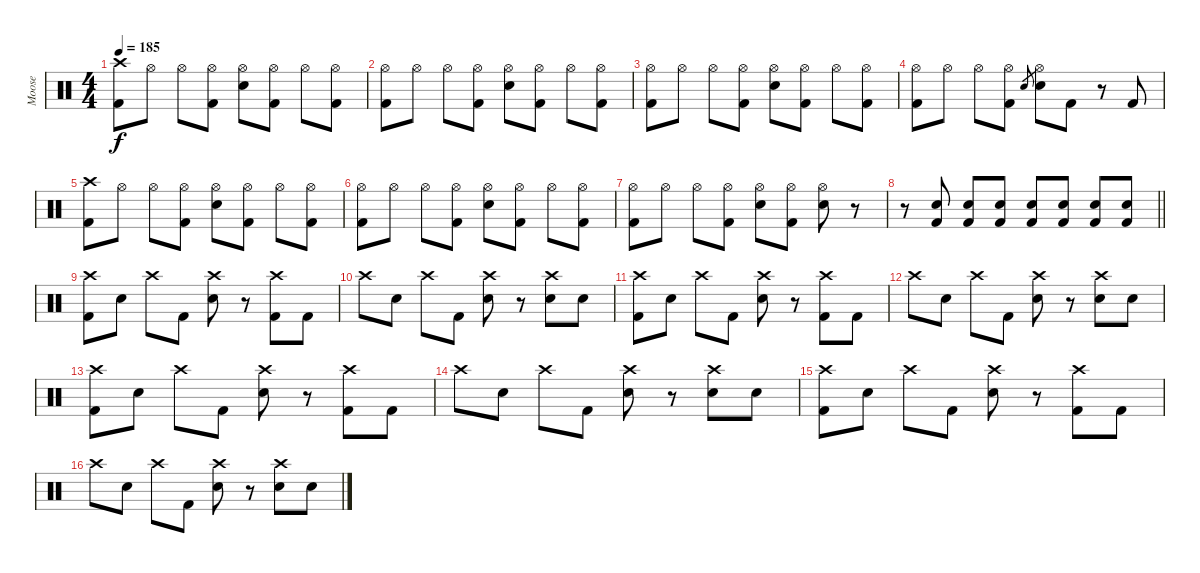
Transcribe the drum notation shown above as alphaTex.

\track ("Moose" "Moose") {instrument percussion}
\staff {score}
\articulation defaults
\ts (4 4)
\tempo 185
\clef neutral
\ks c
("Crash high (hit)" "Kick (hit) 2").8{dy f} "Hi-Hat (open)".8 "Hi-Hat (open)".8 ("Hi-Hat (open)" "Kick (hit) 2").8 ("Hi-Hat (open)" "Electric Snare (hit)").8 ("Hi-Hat (open)" "Kick (hit) 2").8 "Hi-Hat (open)".8 ("Hi-Hat (open)" "Kick (hit) 2").8 |
("Hi-Hat (open)" "Kick (hit) 2").8 "Hi-Hat (open)".8 "Hi-Hat (open)".8 ("Hi-Hat (open)" "Kick (hit) 2").8 ("Hi-Hat (open)" "Electric Snare (hit)").8 ("Hi-Hat (open)" "Kick (hit) 2").8 "Hi-Hat (open)".8 ("Hi-Hat (open)" "Kick (hit) 2").8 |
("Hi-Hat (open)" "Kick (hit) 2").8 "Hi-Hat (open)".8 "Hi-Hat (open)".8 ("Hi-Hat (open)" "Kick (hit) 2").8 ("Hi-Hat (open)" "Electric Snare (hit)").8 ("Hi-Hat (open)" "Kick (hit) 2").8 "Hi-Hat (open)".8 ("Hi-Hat (open)" "Kick (hit) 2").8 |
("Hi-Hat (open)" "Kick (hit) 2").8 "Hi-Hat (open)".8 "Hi-Hat (open)".8 ("Hi-Hat (open)" "Kick (hit) 2").8 "Electric Snare (hit)".8{gr} ("Hi-Hat (open)" "Electric Snare (hit)").8 "Kick (hit) 2".8 r.8 "Kick (hit) 2".8 |
("Crash high (hit)" "Kick (hit) 2").8 "Hi-Hat (open)".8 "Hi-Hat (open)".8 ("Hi-Hat (open)" "Kick (hit) 2").8 ("Hi-Hat (open)" "Electric Snare (hit)").8 ("Hi-Hat (open)" "Kick (hit) 2").8 "Hi-Hat (open)".8 ("Hi-Hat (open)" "Kick (hit) 2").8 |
("Hi-Hat (open)" "Kick (hit) 2").8 "Hi-Hat (open)".8 "Hi-Hat (open)".8 ("Hi-Hat (open)" "Kick (hit) 2").8 ("Hi-Hat (open)" "Electric Snare (hit)").8 ("Hi-Hat (open)" "Kick (hit) 2").8 "Hi-Hat (open)".8 ("Hi-Hat (open)" "Kick (hit) 2").8 |
("Hi-Hat (open)" "Kick (hit) 2").8 "Hi-Hat (open)".8 "Hi-Hat (open)".8 ("Hi-Hat (open)" "Kick (hit) 2").8 ("Hi-Hat (open)" "Electric Snare (hit)").8 ("Hi-Hat (open)" "Kick (hit) 2").8 ("Hi-Hat (open)" "Electric Snare (hit)").8 r.8 |
\barLineRight lightlight
r.8 ("Electric Snare (hit)" "Kick (hit) 2").8 ("Electric Snare (hit)" "Kick (hit) 2").8 ("Electric Snare (hit)" "Kick (hit) 2").8 ("Electric Snare (hit)" "Kick (hit) 2").8 ("Electric Snare (hit)" "Kick (hit) 2").8 ("Electric Snare (hit)" "Kick (hit) 2").8 ("Electric Snare (hit)" "Kick (hit) 2").8 |
("Crash high (hit)" "Kick (hit) 2").8 "Electric Snare (hit)".8 "Crash high (hit)".8 "Kick (hit) 2".8 ("Crash high (hit)" "Electric Snare (hit)").8 r.8 ("Crash high (hit)" "Kick (hit) 2").8 "Kick (hit) 2".8 |
"Crash high (hit)".8 "Electric Snare (hit)".8 "Crash high (hit)".8 "Kick (hit) 2".8 ("Crash high (hit)" "Electric Snare (hit)").8 r.8 ("Crash high (hit)" "Electric Snare (hit)").8 "Electric Snare (hit)".8 |
("Crash high (hit)" "Kick (hit) 2").8 "Electric Snare (hit)".8 "Crash high (hit)".8 "Kick (hit) 2".8 ("Crash high (hit)" "Electric Snare (hit)").8 r.8 ("Crash high (hit)" "Kick (hit) 2").8 "Kick (hit) 2".8 |
"Crash high (hit)".8 "Electric Snare (hit)".8 "Crash high (hit)".8 "Kick (hit) 2".8 ("Crash high (hit)" "Electric Snare (hit)").8 r.8 ("Crash high (hit)" "Electric Snare (hit)").8 "Electric Snare (hit)".8 |
("Crash high (hit)" "Kick (hit) 2").8 "Electric Snare (hit)".8 "Crash high (hit)".8 "Kick (hit) 2".8 ("Crash high (hit)" "Electric Snare (hit)").8 r.8 ("Crash high (hit)" "Kick (hit) 2").8 "Kick (hit) 2".8 |
"Crash high (hit)".8 "Electric Snare (hit)".8 "Crash high (hit)".8 "Kick (hit) 2".8 ("Crash high (hit)" "Electric Snare (hit)").8 r.8 ("Crash high (hit)" "Electric Snare (hit)").8 "Electric Snare (hit)".8 |
("Crash high (hit)" "Kick (hit) 2").8 "Electric Snare (hit)".8 "Crash high (hit)".8 "Kick (hit) 2".8 ("Crash high (hit)" "Electric Snare (hit)").8 r.8 ("Crash high (hit)" "Kick (hit) 2").8 "Kick (hit) 2".8 |
"Crash high (hit)".8 "Electric Snare (hit)".8 "Crash high (hit)".8 "Kick (hit) 2".8 ("Crash high (hit)" "Electric Snare (hit)").8 r.8 ("Crash high (hit)" "Electric Snare (hit)").8 "Electric Snare (hit)".8
